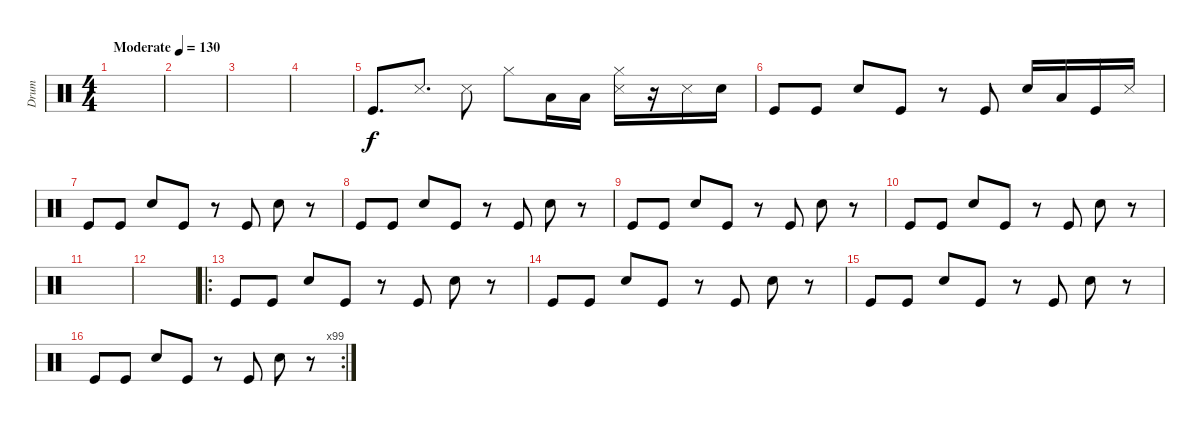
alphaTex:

\track ("Drum" "Drum") {instrument percussion}
\staff {score}
\articulation defaults
\ts (4 4)
\tempo (130 "Moderate")
\clef neutral
\ks c
|
|
|
|
"Kick (hit)".8{d} "Snare (side stick) 3".8{d} "Snare (side stick) 3".8 "Hi-Hat (closed)".8 "Low Floor Tom (hit)".16 "Low Tom (hit)".16 ("Snare (side stick) 3" "Hi-Hat (closed)").16 r.16 "Snare (side stick) 3".16 "Snare (hit) 2".16 |
"Kick (hit)".8 "Kick (hit)".8 "Snare (hit) 2".8 "Kick (hit)".8 r.8 "Kick (hit)".8 "Snare (hit) 2".16 "Low Tom (hit)".16 "Kick (hit)".16 "Snare (side stick) 3".16 |
"Kick (hit)".8 "Kick (hit)".8 "Snare (hit) 2".8 "Kick (hit)".8 r.8 "Kick (hit)".8 "Snare (hit) 2".8 r.8 |
"Kick (hit)".8 "Kick (hit)".8 "Snare (hit) 2".8 "Kick (hit)".8 r.8 "Kick (hit)".8 "Snare (hit) 2".8 r.8 |
"Kick (hit)".8 "Kick (hit)".8 "Snare (hit) 2".8 "Kick (hit)".8 r.8 "Kick (hit)".8 "Snare (hit) 2".8 r.8 |
"Kick (hit)".8 "Kick (hit)".8 "Snare (hit) 2".8 "Kick (hit)".8 r.8 "Kick (hit)".8 "Snare (hit) 2".8 r.8 |
|
|
\ro "Kick (hit)".8 "Kick (hit)".8 "Snare (hit) 2".8 "Kick (hit)".8
r.8 "Kick (hit)".8 "Snare (hit) 2".8 r.8 |
"Kick (hit)".8 "Kick (hit)".8 "Snare (hit) 2".8 "Kick (hit)".8 r.8 "Kick (hit)".8 "Snare (hit) 2".8 r.8 |
"Kick (hit)".8 "Kick (hit)".8 "Snare (hit) 2".8 "Kick (hit)".8 r.8 "Kick (hit)".8 "Snare (hit) 2".8 r.8 |
\rc 99 "Kick (hit)".8 "Kick (hit)".8 "Snare (hit) 2".8 "Kick (hit)".8
r.8 "Kick (hit)".8 "Snare (hit) 2".8 r.8
